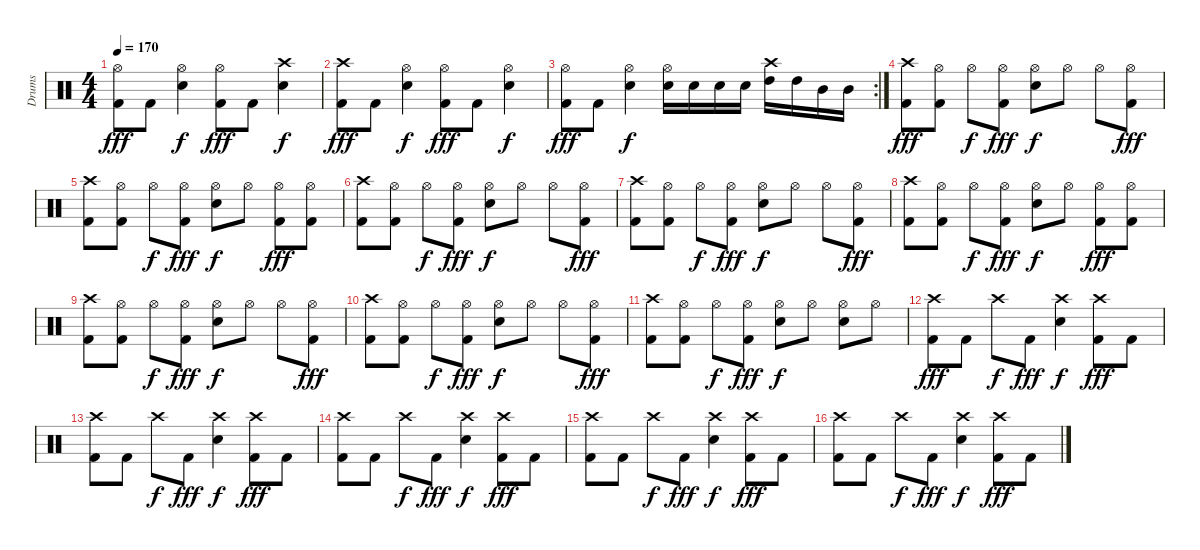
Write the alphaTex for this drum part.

\track ("Drums" "Drums") {instrument percussion}
\staff {score}
\articulation defaults
\ts (4 4)
\tempo 170
\clef neutral
\ks c
("Hi-Hat (open)" "Kick (hit) 2").8{dy fff} "Kick (hit) 2".8 ("Hi-Hat (open)" "Electric Snare (hit)").4{dy f} ("Hi-Hat (open)" "Kick (hit) 2").8{dy fff} "Kick (hit) 2".8 ("Crash high (hit)" "Electric Snare (hit)").4{dy f} |
("Crash high (hit)" "Kick (hit) 2").8{dy fff} "Kick (hit) 2".8 ("Hi-Hat (open)" "Electric Snare (hit)").4{dy f} ("Hi-Hat (open)" "Kick (hit) 2").8{dy fff} "Kick (hit) 2".8 ("Hi-Hat (open)" "Electric Snare (hit)").4{dy f} |
\rc 2
("Hi-Hat (open)" "Kick (hit) 2").8{dy fff} "Kick (hit) 2".8 ("Hi-Hat (open)" "Electric Snare (hit)").4{dy f} ("Hi-Hat (open)" "Electric Snare (hit)").16 "Electric Snare (hit)".16 "Electric Snare (hit)".16 "Electric Snare (hit)".16 ("Crash high (hit)" "High Tom (hit)").16 "High Tom (hit)".16 "Mid Tom (hit)".16 "Mid Tom (hit)".16 |
("Crash high (hit)" "Kick (hit) 2").8{dy fff} ("Hi-Hat (open)" "Kick (hit) 2").8 "Hi-Hat (open)".8{dy f} ("Hi-Hat (open)" "Kick (hit) 2").8{dy fff} ("Hi-Hat (open)" "Electric Snare (hit)").8{dy f} "Hi-Hat (open)".8 "Hi-Hat (open)".8 ("Hi-Hat (open)" "Kick (hit) 2").8{dy fff} |
("Crash high (hit)" "Kick (hit) 2").8 ("Hi-Hat (open)" "Kick (hit) 2").8 "Hi-Hat (open)".8{dy f} ("Hi-Hat (open)" "Kick (hit) 2").8{dy fff} ("Hi-Hat (open)" "Electric Snare (hit)").8{dy f} "Hi-Hat (open)".8 ("Hi-Hat (open)" "Kick (hit) 2").8{dy fff} ("Hi-Hat (open)" "Kick (hit) 2").8 |
("Crash high (hit)" "Kick (hit) 2").8 ("Hi-Hat (open)" "Kick (hit) 2").8 "Hi-Hat (open)".8{dy f} ("Hi-Hat (open)" "Kick (hit) 2").8{dy fff} ("Hi-Hat (open)" "Electric Snare (hit)").8{dy f} "Hi-Hat (open)".8 "Hi-Hat (open)".8 ("Hi-Hat (open)" "Kick (hit) 2").8{dy fff} |
("Crash high (hit)" "Kick (hit) 2").8 ("Hi-Hat (open)" "Kick (hit) 2").8 "Hi-Hat (open)".8{dy f} ("Hi-Hat (open)" "Kick (hit) 2").8{dy fff} ("Hi-Hat (open)" "Electric Snare (hit)").8{dy f} "Hi-Hat (open)".8 "Hi-Hat (open)".8 ("Hi-Hat (open)" "Kick (hit) 2").8{dy fff} |
("Crash high (hit)" "Kick (hit) 2").8 ("Hi-Hat (open)" "Kick (hit) 2").8 "Hi-Hat (open)".8{dy f} ("Hi-Hat (open)" "Kick (hit) 2").8{dy fff} ("Hi-Hat (open)" "Electric Snare (hit)").8{dy f} "Hi-Hat (open)".8 ("Hi-Hat (open)" "Kick (hit) 2").8{dy fff} ("Hi-Hat (open)" "Kick (hit) 2").8 |
("Crash high (hit)" "Kick (hit) 2").8 ("Hi-Hat (open)" "Kick (hit) 2").8 "Hi-Hat (open)".8{dy f} ("Hi-Hat (open)" "Kick (hit) 2").8{dy fff} ("Hi-Hat (open)" "Electric Snare (hit)").8{dy f} "Hi-Hat (open)".8 "Hi-Hat (open)".8 ("Hi-Hat (open)" "Kick (hit) 2").8{dy fff} |
("Crash high (hit)" "Kick (hit) 2").8 ("Hi-Hat (open)" "Kick (hit) 2").8 "Hi-Hat (open)".8{dy f} ("Hi-Hat (open)" "Kick (hit) 2").8{dy fff} ("Hi-Hat (open)" "Electric Snare (hit)").8{dy f} "Hi-Hat (open)".8 "Hi-Hat (open)".8 ("Hi-Hat (open)" "Kick (hit) 2").8{dy fff} |
("Crash high (hit)" "Kick (hit) 2").8 ("Hi-Hat (open)" "Kick (hit) 2").8 "Hi-Hat (open)".8{dy f} ("Hi-Hat (open)" "Kick (hit) 2").8{dy fff} ("Hi-Hat (open)" "Electric Snare (hit)").8{dy f} "Hi-Hat (open)".8 ("Hi-Hat (open)" "Electric Snare (hit)").8 "Hi-Hat (open)".8 |
("Crash high (hit)" "Kick (hit) 2").8{dy fff} "Kick (hit) 2".8 "Crash high (hit)".8{dy f} "Kick (hit) 2".8{dy fff} ("Crash high (hit)" "Electric Snare (hit)").4{dy f} ("Crash high (hit)" "Kick (hit) 2").8{dy fff} "Kick (hit) 2".8 |
("Crash high (hit)" "Kick (hit) 2").8 "Kick (hit) 2".8 "Crash high (hit)".8{dy f} "Kick (hit) 2".8{dy fff} ("Crash high (hit)" "Electric Snare (hit)").4{dy f} ("Crash high (hit)" "Kick (hit) 2").8{dy fff} "Kick (hit) 2".8 |
("Crash high (hit)" "Kick (hit) 2").8 "Kick (hit) 2".8 "Crash high (hit)".8{dy f} "Kick (hit) 2".8{dy fff} ("Crash high (hit)" "Electric Snare (hit)").4{dy f} ("Crash high (hit)" "Kick (hit) 2").8{dy fff} "Kick (hit) 2".8 |
("Crash high (hit)" "Kick (hit) 2").8 "Kick (hit) 2".8 "Crash high (hit)".8{dy f} "Kick (hit) 2".8{dy fff} ("Crash high (hit)" "Electric Snare (hit)").4{dy f} ("Crash high (hit)" "Kick (hit) 2").8{dy fff} "Kick (hit) 2".8 |
("Crash high (hit)" "Kick (hit) 2").8 "Kick (hit) 2".8 "Crash high (hit)".8{dy f} "Kick (hit) 2".8{dy fff} ("Crash high (hit)" "Electric Snare (hit)").4{dy f} ("Crash high (hit)" "Kick (hit) 2").8{dy fff} "Kick (hit) 2".8
